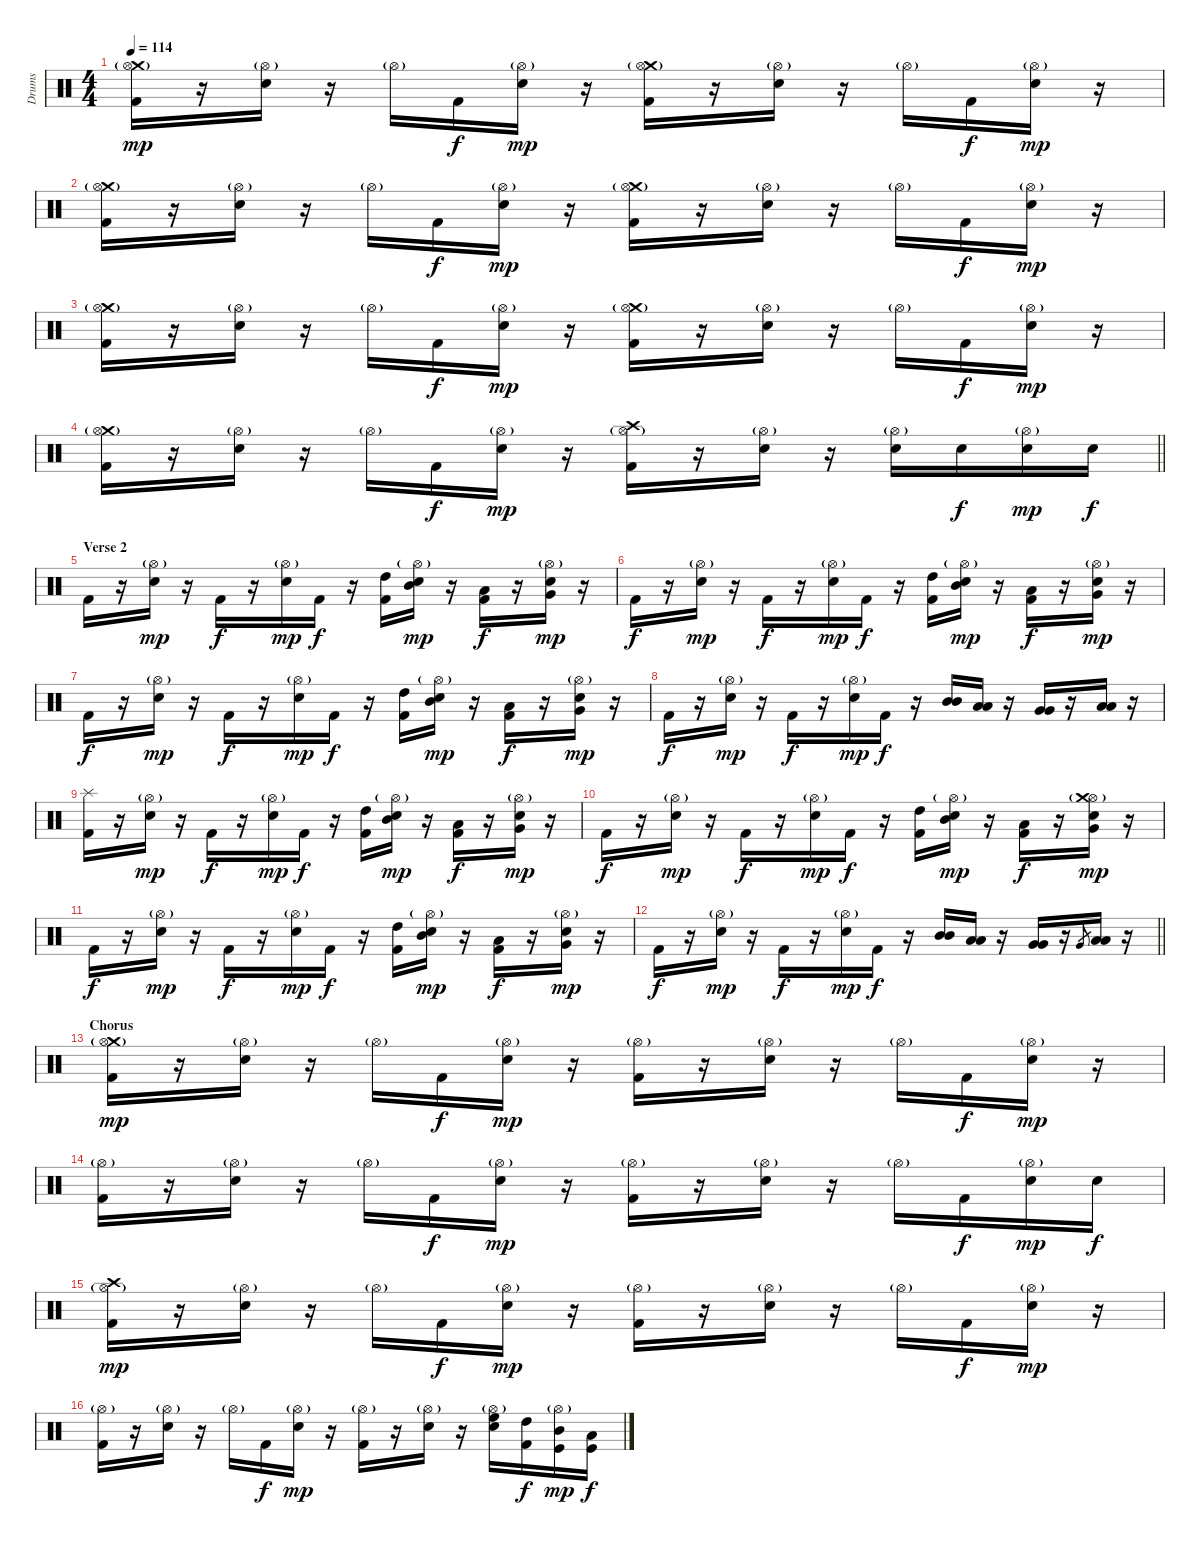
\track ("Drums" "Drums") {instrument percussion}
\staff {score}
\articulation defaults
\ts (4 4)
\tempo 114
\clef neutral
\ks c
("Crash medium (hit)" "Hi-Hat (open)"{g} "Kick (hit) 2").16{dy mp} r.16 ("Hi-Hat (open)"{g} "Electric Snare (hit)").16 r.16 "Hi-Hat (open)"{g}.16 "Kick (hit) 2".16{dy f} ("Hi-Hat (open)"{g} "Electric Snare (hit)").16{dy mp} r.16 ("Crash medium (hit)" "Hi-Hat (open)"{g} "Kick (hit) 2").16 r.16 ("Hi-Hat (open)"{g} "Electric Snare (hit)").16 r.16 "Hi-Hat (open)"{g}.16 "Kick (hit) 2".16{dy f} ("Hi-Hat (open)"{g} "Electric Snare (hit)").16{dy mp} r.16 |
("Crash medium (hit)" "Hi-Hat (open)"{g} "Kick (hit) 2").16 r.16 ("Hi-Hat (open)"{g} "Electric Snare (hit)").16 r.16 "Hi-Hat (open)"{g}.16 "Kick (hit) 2".16{dy f} ("Hi-Hat (open)"{g} "Electric Snare (hit)").16{dy mp} r.16 ("Crash medium (hit)" "Hi-Hat (open)"{g} "Kick (hit) 2").16 r.16 ("Hi-Hat (open)"{g} "Electric Snare (hit)").16 r.16 "Hi-Hat (open)"{g}.16 "Kick (hit) 2".16{dy f} ("Hi-Hat (open)"{g} "Electric Snare (hit)").16{dy mp} r.16 |
("Crash medium (hit)" "Hi-Hat (open)"{g} "Kick (hit) 2").16 r.16 ("Hi-Hat (open)"{g} "Electric Snare (hit)").16 r.16 "Hi-Hat (open)"{g}.16 "Kick (hit) 2".16{dy f} ("Hi-Hat (open)"{g} "Electric Snare (hit)").16{dy mp} r.16 ("Crash medium (hit)" "Hi-Hat (open)"{g} "Kick (hit) 2").16 r.16 ("Hi-Hat (open)"{g} "Electric Snare (hit)").16 r.16 "Hi-Hat (open)"{g}.16 "Kick (hit) 2".16{dy f} ("Hi-Hat (open)"{g} "Electric Snare (hit)").16{dy mp} r.16 |
\barLineRight lightlight
("Crash medium (hit)" "Hi-Hat (open)"{g} "Kick (hit) 2").16 r.16 ("Hi-Hat (open)"{g} "Electric Snare (hit)").16 r.16 "Hi-Hat (open)"{g}.16 "Kick (hit) 2".16{dy f} ("Hi-Hat (open)"{g} "Electric Snare (hit)").16{dy mp} r.16 ("Crash high (hit)" "Hi-Hat (open)"{g} "Kick (hit) 2").16 r.16 ("Hi-Hat (open)"{g} "Electric Snare (hit)").16 r.16 ("Hi-Hat (open)"{g} "Electric Snare (hit)").16 "Electric Snare (hit)".16{dy f} ("Hi-Hat (open)"{g} "Electric Snare (hit)").16{dy mp} "Electric Snare (hit)".16{dy f} |
\section ("" "Verse 2")
"Kick (hit) 2".16 r.16 ("Hi-Hat (open)"{g} "Electric Snare (hit)").16{dy mp} r.16 "Kick (hit) 2".16{dy f} r.16 ("Hi-Hat (open)"{g} "Electric Snare (hit)").16{dy mp} "Kick (hit) 2".16{dy f} r.16 ("High Tom (hit)" "Kick (hit) 2").16 ("Hi-Hat (open)"{g} "Mid Tom (hit)" "Electric Snare (hit)").16{dy mp} r.16 ("Low Tom (hit)" "Kick (hit) 2").16{dy f} r.16 ("Hi-Hat (open)"{g} "Very Low Tom (hit)" "Electric Snare (hit)").16{dy mp} r.16 |
"Kick (hit) 2".16{dy f} r.16 ("Hi-Hat (open)"{g} "Electric Snare (hit)").16{dy mp} r.16 "Kick (hit) 2".16{dy f} r.16 ("Hi-Hat (open)"{g} "Electric Snare (hit)").16{dy mp} "Kick (hit) 2".16{dy f} r.16 ("High Tom (hit)" "Kick (hit) 2").16 ("Hi-Hat (open)"{g} "Mid Tom (hit)" "Electric Snare (hit)").16{dy mp} r.16 ("Low Tom (hit)" "Kick (hit) 2").16{dy f} r.16 ("Hi-Hat (open)"{g} "Very Low Tom (hit)" "Electric Snare (hit)").16{dy mp} r.16 |
"Kick (hit) 2".16{dy f} r.16 ("Hi-Hat (open)"{g} "Electric Snare (hit)").16{dy mp} r.16 "Kick (hit) 2".16{dy f} r.16 ("Hi-Hat (open)"{g} "Electric Snare (hit)").16{dy mp} "Kick (hit) 2".16{dy f} r.16 ("High Tom (hit)" "Kick (hit) 2").16 ("Hi-Hat (open)"{g} "Mid Tom (hit)" "Electric Snare (hit)").16{dy mp} r.16 ("Low Tom (hit)" "Kick (hit) 2").16{dy f} r.16 ("Hi-Hat (open)"{g} "Very Low Tom (hit)" "Electric Snare (hit)").16{dy mp} r.16 |
"Kick (hit) 2".16{dy f} r.16 ("Hi-Hat (open)"{g} "Electric Snare (hit)").16{dy mp} r.16 "Kick (hit) 2".16{dy f} r.16 ("Hi-Hat (open)"{g} "Electric Snare (hit)").16{dy mp} "Kick (hit) 2".16{dy f} r.16 ("Mid Tom (hit)" "Mid Tom (hit)").16 ("Low Tom (hit)" "Low Tom (hit)").16 r.16 ("Very Low Tom (hit)" "Very Low Tom (hit)").16 r.16 ("Low Floor Tom (hit)" "Low Floor Tom (hit)").16 r.16 |
("Splash (hit)" "Kick (hit) 2").16 r.16 ("Hi-Hat (open)"{g} "Electric Snare (hit)").16{dy mp} r.16 "Kick (hit) 2".16{dy f} r.16 ("Hi-Hat (open)"{g} "Electric Snare (hit)").16{dy mp} "Kick (hit) 2".16{dy f} r.16 ("High Tom (hit)" "Kick (hit) 2").16 ("Hi-Hat (open)"{g} "Mid Tom (hit)" "Electric Snare (hit)").16{dy mp} r.16 ("Low Tom (hit)" "Kick (hit) 2").16{dy f} r.16 ("Hi-Hat (open)"{g} "Very Low Tom (hit)" "Electric Snare (hit)").16{dy mp} r.16 |
"Kick (hit) 2".16{dy f} r.16 ("Hi-Hat (open)"{g} "Electric Snare (hit)").16{dy mp} r.16 "Kick (hit) 2".16{dy f} r.16 ("Hi-Hat (open)"{g} "Electric Snare (hit)").16{dy mp} "Kick (hit) 2".16{dy f} r.16 ("High Tom (hit)" "Kick (hit) 2").16 ("Hi-Hat (open)"{g} "Mid Tom (hit)" "Electric Snare (hit)").16{dy mp} r.16 ("Low Tom (hit)" "Kick (hit) 2").16{dy f} r.16 ("Hi-Hat (open)"{g} "Crash medium (hit)" "Very Low Tom (hit)" "Electric Snare (hit)").16{dy mp} r.16 |
"Kick (hit) 2".16{dy f} r.16 ("Hi-Hat (open)"{g} "Electric Snare (hit)").16{dy mp} r.16 "Kick (hit) 2".16{dy f} r.16 ("Hi-Hat (open)"{g} "Electric Snare (hit)").16{dy mp} "Kick (hit) 2".16{dy f} r.16 ("High Tom (hit)" "Kick (hit) 2").16 ("Hi-Hat (open)"{g} "Mid Tom (hit)" "Electric Snare (hit)").16{dy mp} r.16 ("Low Tom (hit)" "Kick (hit) 2").16{dy f} r.16 ("Hi-Hat (open)"{g} "Very Low Tom (hit)" "Electric Snare (hit)").16{dy mp} r.16 |
\barLineRight lightlight "Kick (hit) 2".16{dy f}
r.16 ("Hi-Hat (open)"{g} "Electric Snare (hit)").16{dy mp} r.16 "Kick (hit) 2".16{dy f} r.16 ("Hi-Hat (open)"{g} "Electric Snare (hit)").16{dy mp} "Kick (hit) 2".16{dy f} r.16 ("Mid Tom (hit)" "Mid Tom (hit)").16 ("Low Tom (hit)" "Low Tom (hit)").16 r.16 ("Very Low Tom (hit)" "Very Low Tom (hit)").16 r.16 "Very Low Tom (hit)".8{gr} ("Low Floor Tom (hit)" "Low Floor Tom (hit)").16 r.16 |
\section ("" "Chorus")
("Crash medium (hit)" "Hi-Hat (open)"{g} "Kick (hit) 2").16{dy mp} r.16 ("Hi-Hat (open)"{g} "Electric Snare (hit)").16 r.16 "Hi-Hat (open)"{g}.16 "Kick (hit) 2".16{dy f} ("Hi-Hat (open)"{g} "Electric Snare (hit)").16{dy mp} r.16 ("Hi-Hat (open)"{g} "Kick (hit) 2").16 r.16 ("Hi-Hat (open)"{g} "Electric Snare (hit)").16 r.16 "Hi-Hat (open)"{g}.16 "Kick (hit) 2".16{dy f} ("Hi-Hat (open)"{g} "Electric Snare (hit)").16{dy mp} r.16 |
("Hi-Hat (open)"{g} "Kick (hit) 2").16 r.16 ("Hi-Hat (open)"{g} "Electric Snare (hit)").16 r.16 "Hi-Hat (open)"{g}.16 "Kick (hit) 2".16{dy f} ("Hi-Hat (open)"{g} "Electric Snare (hit)").16{dy mp} r.16 ("Hi-Hat (open)"{g} "Kick (hit) 2").16 r.16 ("Hi-Hat (open)"{g} "Electric Snare (hit)").16 r.16 "Hi-Hat (open)"{g}.16 "Kick (hit) 2".16{dy f} ("Hi-Hat (open)"{g} "Electric Snare (hit)").16{dy mp} "Electric Snare (hit)".16{dy f} |
("Crash high (hit)" "Hi-Hat (open)"{g} "Kick (hit) 2").16{dy mp} r.16 ("Hi-Hat (open)"{g} "Electric Snare (hit)").16 r.16 "Hi-Hat (open)"{g}.16 "Kick (hit) 2".16{dy f} ("Hi-Hat (open)"{g} "Electric Snare (hit)").16{dy mp} r.16 ("Hi-Hat (open)"{g} "Kick (hit) 2").16 r.16 ("Hi-Hat (open)"{g} "Electric Snare (hit)").16 r.16 "Hi-Hat (open)"{g}.16 "Kick (hit) 2".16{dy f} ("Hi-Hat (open)"{g} "Electric Snare (hit)").16{dy mp} r.16 |
("Hi-Hat (open)"{g} "Kick (hit) 2").16 r.16 ("Hi-Hat (open)"{g} "Electric Snare (hit)").16 r.16 "Hi-Hat (open)"{g}.16 "Kick (hit) 2".16{dy f} ("Hi-Hat (open)"{g} "Electric Snare (hit)").16{dy mp} r.16 ("Hi-Hat (open)"{g} "Kick (hit) 2").16 r.16 ("Hi-Hat (open)"{g} "Electric Snare (hit)").16 r.16 ("Hi-Hat (open)"{g} "High Floor Tom (hit)" "Electric Snare (hit)").16 ("High Tom (hit)" "Kick (hit) 2").16{dy f} ("Hi-Hat (open)"{g} "Mid Tom (hit)" "Kick (hit)").16{dy mp} ("Low Tom (hit)" "Kick (hit)").16{dy f}
